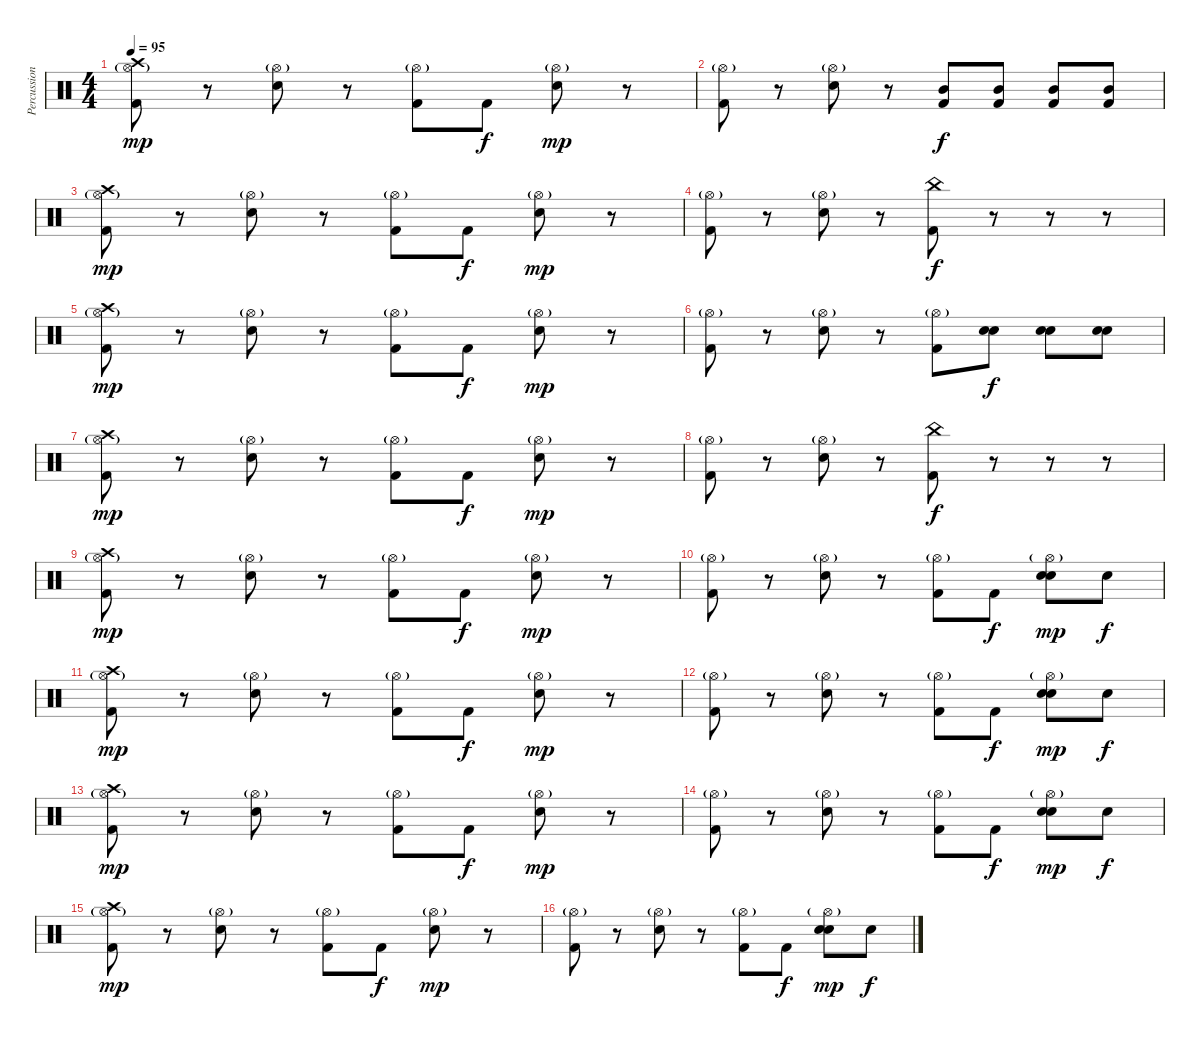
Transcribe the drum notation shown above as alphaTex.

\track ("Percussions" "Percussion") {instrument percussion}
\staff {score}
\articulation defaults
\ts (4 4)
\tempo 95
\clef neutral
\ks c
("Hi-Hat (open)"{g} "Crash high (hit)" "Kick (hit) 2").8{dy mp} r.8 ("Hi-Hat (open)"{g} "Snare (hit) 2").8 r.8 ("Hi-Hat (open)"{g} "Kick (hit) 2").8 "Kick (hit) 2".8{dy f} ("Hi-Hat (open)"{g} "Snare (hit) 2").8{dy mp} r.8 |
("Hi-Hat (open)"{g} "Kick (hit) 2").8 r.8 ("Hi-Hat (open)"{g} "Snare (hit) 2").8 r.8 ("Kick (hit) 2" "Mid Tom (hit)").8{dy f} ("Kick (hit) 2" "Mid Tom (hit)").8 ("Kick (hit) 2" "Mid Tom (hit)").8 ("Kick (hit) 2" "Mid Tom (hit)").8 |
("Hi-Hat (open)"{g} "Crash high (hit)" "Kick (hit) 2").8{dy mp} r.8 ("Hi-Hat (open)"{g} "Snare (hit) 2").8 r.8 ("Hi-Hat (open)"{g} "Kick (hit) 2").8 "Kick (hit) 2".8{dy f} ("Hi-Hat (open)"{g} "Snare (hit) 2").8{dy mp} r.8 |
("Hi-Hat (open)"{g} "Kick (hit) 2").8 r.8 ("Hi-Hat (open)"{g} "Snare (hit) 2").8 r.8 ("Kick (hit) 2" "China (hit)").8{dy f} r.8 r.8 r.8 |
("Hi-Hat (open)"{g} "Crash high (hit)" "Kick (hit) 2").8{dy mp} r.8 ("Hi-Hat (open)"{g} "Snare (hit) 2").8 r.8 ("Hi-Hat (open)"{g} "Kick (hit) 2").8 "Kick (hit) 2".8{dy f} ("Hi-Hat (open)"{g} "Snare (hit) 2").8{dy mp} r.8 |
("Hi-Hat (open)"{g} "Kick (hit) 2").8 r.8 ("Hi-Hat (open)"{g} "Snare (hit) 2").8 r.8 ("Hi-Hat (open)"{g} "Kick (hit) 2").8 ("Snare (hit) 2" "Snare (hit) 2").8{dy f} ("Snare (hit) 2" "Snare (hit) 2").8 ("Snare (hit) 2" "Snare (hit) 2").8 |
("Hi-Hat (open)"{g} "Crash high (hit)" "Kick (hit) 2").8{dy mp} r.8 ("Hi-Hat (open)"{g} "Snare (hit) 2").8 r.8 ("Hi-Hat (open)"{g} "Kick (hit) 2").8 "Kick (hit) 2".8{dy f} ("Hi-Hat (open)"{g} "Snare (hit) 2").8{dy mp} r.8 |
("Hi-Hat (open)"{g} "Kick (hit) 2").8 r.8 ("Hi-Hat (open)"{g} "Snare (hit) 2").8 r.8 ("China (hit)" "Kick (hit) 2").8{dy f} r.8 r.8 r.8 |
("Hi-Hat (open)"{g} "Crash high (hit)" "Kick (hit) 2").8{dy mp} r.8 ("Hi-Hat (open)"{g} "Snare (hit) 2").8 r.8 ("Hi-Hat (open)"{g} "Kick (hit) 2").8 "Kick (hit) 2".8{dy f} ("Hi-Hat (open)"{g} "Snare (hit) 2").8{dy mp} r.8 |
("Hi-Hat (open)"{g} "Kick (hit) 2").8 r.8 ("Hi-Hat (open)"{g} "Snare (hit) 2").8 r.8 ("Hi-Hat (open)"{g} "Kick (hit) 2").8 "Kick (hit) 2".8{dy f} ("Hi-Hat (open)"{g} "Snare (hit) 2" "Snare (hit) 2").8{dy mp} "Snare (hit) 2".8{dy f} |
("Hi-Hat (open)"{g} "Crash high (hit)" "Kick (hit) 2").8{dy mp} r.8 ("Hi-Hat (open)"{g} "Snare (hit) 2").8 r.8 ("Hi-Hat (open)"{g} "Kick (hit) 2").8 "Kick (hit) 2".8{dy f} ("Hi-Hat (open)"{g} "Snare (hit) 2").8{dy mp} r.8 |
("Hi-Hat (open)"{g} "Kick (hit) 2").8 r.8 ("Hi-Hat (open)"{g} "Snare (hit) 2").8 r.8 ("Hi-Hat (open)"{g} "Kick (hit) 2").8 "Kick (hit) 2".8{dy f} ("Hi-Hat (open)"{g} "Snare (hit) 2" "Snare (hit) 2").8{dy mp} "Snare (hit) 2".8{dy f} |
("Hi-Hat (open)"{g} "Crash high (hit)" "Kick (hit) 2").8{dy mp} r.8 ("Hi-Hat (open)"{g} "Snare (hit) 2").8 r.8 ("Hi-Hat (open)"{g} "Kick (hit) 2").8 "Kick (hit) 2".8{dy f} ("Hi-Hat (open)"{g} "Snare (hit) 2").8{dy mp} r.8 |
("Hi-Hat (open)"{g} "Kick (hit) 2").8 r.8 ("Hi-Hat (open)"{g} "Snare (hit) 2").8 r.8 ("Hi-Hat (open)"{g} "Kick (hit) 2").8 "Kick (hit) 2".8{dy f} ("Hi-Hat (open)"{g} "Snare (hit) 2" "Snare (hit) 2").8{dy mp} "Snare (hit) 2".8{dy f} |
("Hi-Hat (open)"{g} "Crash high (hit)" "Kick (hit) 2").8{dy mp} r.8 ("Hi-Hat (open)"{g} "Snare (hit) 2").8 r.8 ("Hi-Hat (open)"{g} "Kick (hit) 2").8 "Kick (hit) 2".8{dy f} ("Hi-Hat (open)"{g} "Snare (hit) 2").8{dy mp} r.8 |
("Hi-Hat (open)"{g} "Kick (hit) 2").8 r.8 ("Hi-Hat (open)"{g} "Snare (hit) 2").8 r.8 ("Hi-Hat (open)"{g} "Kick (hit) 2").8 "Kick (hit) 2".8{dy f} ("Hi-Hat (open)"{g} "Snare (hit) 2" "Snare (hit) 2").8{dy mp} "Snare (hit) 2".8{dy f}
